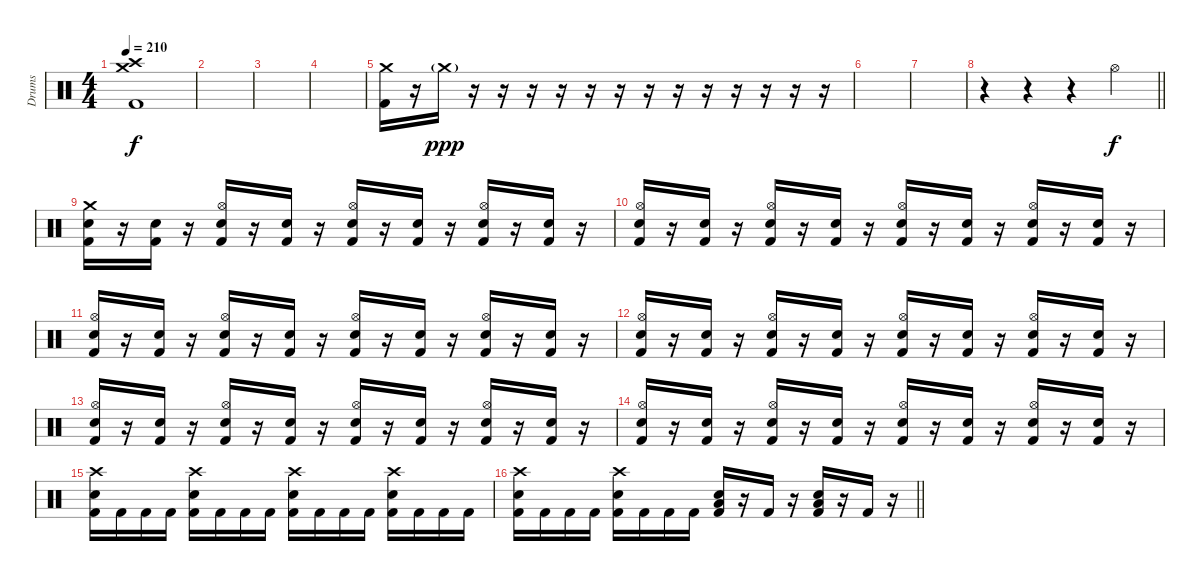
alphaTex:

\track ("Drums" "Drums") {instrument percussion}
\staff {score}
\articulation defaults
\ts (4 4)
\tempo 210
\clef neutral
\ks c
("Crash medium (hit)" "Crash high (hit)" "Kick (hit) 2").1{dy f} |
|
|
|
("Crash medium (hit)" "Kick (hit) 2").16{beam merge} r.16 "Crash medium (hit)"{g}.16{dy ppp volume 0} r.16 r.16 r.16 r.16 r.16 r.16 r.16 r.16 r.16 r.16 r.16 r.16 r.16 |
|
|
\barLineRight lightlight
r.4{volume 16} r.4 r.4 "Hi-Hat (open)".4{dy f} |
("Crash medium (hit)" "Electric Snare (hit)" "Kick (hit) 2").16 r.16 ("Electric Snare (hit)" "Kick (hit) 2").16 r.16 ("Hi-Hat (open)" "Electric Snare (hit)" "Kick (hit) 2").16 r.16 ("Electric Snare (hit)" "Kick (hit) 2").16 r.16 ("Hi-Hat (open)" "Electric Snare (hit)" "Kick (hit) 2").16 r.16 ("Electric Snare (hit)" "Kick (hit) 2").16 r.16 ("Hi-Hat (open)" "Electric Snare (hit)" "Kick (hit) 2").16 r.16 ("Electric Snare (hit)" "Kick (hit) 2").16 r.16 |
("Hi-Hat (open)" "Electric Snare (hit)" "Kick (hit) 2").16 r.16 ("Electric Snare (hit)" "Kick (hit) 2").16 r.16 ("Hi-Hat (open)" "Electric Snare (hit)" "Kick (hit) 2").16 r.16 ("Electric Snare (hit)" "Kick (hit) 2").16 r.16 ("Hi-Hat (open)" "Electric Snare (hit)" "Kick (hit) 2").16 r.16 ("Electric Snare (hit)" "Kick (hit) 2").16 r.16 ("Hi-Hat (open)" "Electric Snare (hit)" "Kick (hit) 2").16 r.16 ("Electric Snare (hit)" "Kick (hit) 2").16 r.16 |
("Hi-Hat (open)" "Electric Snare (hit)" "Kick (hit) 2").16 r.16 ("Electric Snare (hit)" "Kick (hit) 2").16 r.16 ("Hi-Hat (open)" "Electric Snare (hit)" "Kick (hit) 2").16 r.16 ("Electric Snare (hit)" "Kick (hit) 2").16 r.16 ("Hi-Hat (open)" "Electric Snare (hit)" "Kick (hit) 2").16 r.16 ("Electric Snare (hit)" "Kick (hit) 2").16 r.16 ("Hi-Hat (open)" "Electric Snare (hit)" "Kick (hit) 2").16 r.16 ("Electric Snare (hit)" "Kick (hit) 2").16 r.16 |
("Hi-Hat (open)" "Electric Snare (hit)" "Kick (hit) 2").16 r.16 ("Electric Snare (hit)" "Kick (hit) 2").16 r.16 ("Hi-Hat (open)" "Electric Snare (hit)" "Kick (hit) 2").16 r.16 ("Electric Snare (hit)" "Kick (hit) 2").16 r.16 ("Hi-Hat (open)" "Electric Snare (hit)" "Kick (hit) 2").16 r.16 ("Electric Snare (hit)" "Kick (hit) 2").16 r.16 ("Hi-Hat (open)" "Electric Snare (hit)" "Kick (hit) 2").16 r.16 ("Electric Snare (hit)" "Kick (hit) 2").16 r.16 |
("Hi-Hat (open)" "Electric Snare (hit)" "Kick (hit) 2").16 r.16 ("Electric Snare (hit)" "Kick (hit) 2").16 r.16 ("Hi-Hat (open)" "Electric Snare (hit)" "Kick (hit) 2").16 r.16 ("Electric Snare (hit)" "Kick (hit) 2").16 r.16 ("Hi-Hat (open)" "Electric Snare (hit)" "Kick (hit) 2").16 r.16 ("Electric Snare (hit)" "Kick (hit) 2").16 r.16 ("Hi-Hat (open)" "Electric Snare (hit)" "Kick (hit) 2").16 r.16 ("Electric Snare (hit)" "Kick (hit) 2").16 r.16 |
("Hi-Hat (open)" "Electric Snare (hit)" "Kick (hit) 2").16 r.16 ("Electric Snare (hit)" "Kick (hit) 2").16 r.16 ("Hi-Hat (open)" "Electric Snare (hit)" "Kick (hit) 2").16 r.16 ("Electric Snare (hit)" "Kick (hit) 2").16 r.16 ("Hi-Hat (open)" "Electric Snare (hit)" "Kick (hit) 2").16 r.16 ("Electric Snare (hit)" "Kick (hit) 2").16 r.16 ("Hi-Hat (open)" "Electric Snare (hit)" "Kick (hit) 2").16 r.16 ("Electric Snare (hit)" "Kick (hit) 2").16 r.16 |
("Crash high (hit)" "Electric Snare (hit)" "Kick (hit) 2").16 "Kick (hit) 2".16 "Kick (hit) 2".16 "Kick (hit) 2".16 ("Crash high (hit)" "Electric Snare (hit)" "Kick (hit) 2").16 "Kick (hit) 2".16 "Kick (hit) 2".16 "Kick (hit) 2".16 ("Crash high (hit)" "Electric Snare (hit)" "Kick (hit) 2").16 "Kick (hit) 2".16 "Kick (hit) 2".16 "Kick (hit) 2".16 ("Crash high (hit)" "Electric Snare (hit)" "Kick (hit) 2").16 "Kick (hit) 2".16 "Kick (hit) 2".16 "Kick (hit) 2".16 |
\barLineRight lightlight
("Crash high (hit)" "Electric Snare (hit)" "Kick (hit) 2").16 "Kick (hit) 2".16 "Kick (hit) 2".16 "Kick (hit) 2".16 ("Crash high (hit)" "Electric Snare (hit)" "Kick (hit) 2").16 "Kick (hit) 2".16 "Kick (hit) 2".16 "Kick (hit) 2".16 ("Low Floor Tom (hit)" "Electric Snare (hit)" "Kick (hit) 2").16 r.16 "Kick (hit) 2".16 r.16 ("Low Floor Tom (hit)" "Electric Snare (hit)" "Kick (hit) 2").16 r.16 "Kick (hit) 2".16 r.16
